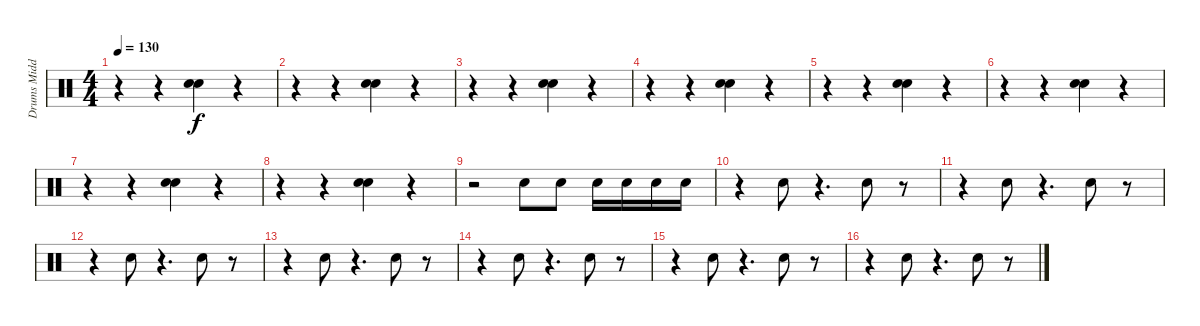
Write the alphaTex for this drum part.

\track ("Drums Middle" "Drums Midd") {instrument percussion}
\staff {score}
\articulation defaults
\ts (4 4)
\tempo 130
\clef neutral
\ks c
r.4{dy f} r.4 ("Snare (hit) 2" "Electric Snare (hit)").4 r.4 |
r.4 r.4 ("Snare (hit) 2" "Electric Snare (hit)").4 r.4 |
r.4 r.4 ("Snare (hit) 2" "Electric Snare (hit)").4 r.4 |
r.4 r.4 ("Snare (hit) 2" "Electric Snare (hit)").4 r.4 |
r.4 r.4 ("Snare (hit) 2" "Electric Snare (hit)").4 r.4 |
r.4 r.4 ("Snare (hit) 2" "Electric Snare (hit)").4 r.4 |
r.4 r.4 ("Snare (hit) 2" "Electric Snare (hit)").4 r.4 |
r.4 r.4 ("Snare (hit) 2" "Electric Snare (hit)").4 r.4 |
r.2{volume 14} "Electric Snare (hit)".8 "Electric Snare (hit)".8 "Electric Snare (hit)".16 "Electric Snare (hit)".16 "Electric Snare (hit)".16 "Electric Snare (hit)".16 |
r.4 "Electric Snare (hit)".8 r.4{d} "Electric Snare (hit)".8 r.8 |
r.4 "Electric Snare (hit)".8 r.4{d} "Electric Snare (hit)".8 r.8 |
r.4 "Electric Snare (hit)".8 r.4{d} "Electric Snare (hit)".8 r.8 |
r.4 "Electric Snare (hit)".8 r.4{d} "Electric Snare (hit)".8 r.8 |
r.4 "Electric Snare (hit)".8 r.4{d} "Electric Snare (hit)".8 r.8 |
r.4 "Electric Snare (hit)".8 r.4{d} "Electric Snare (hit)".8 r.8 |
r.4 "Electric Snare (hit)".8 r.4{d} "Electric Snare (hit)".8 r.8
